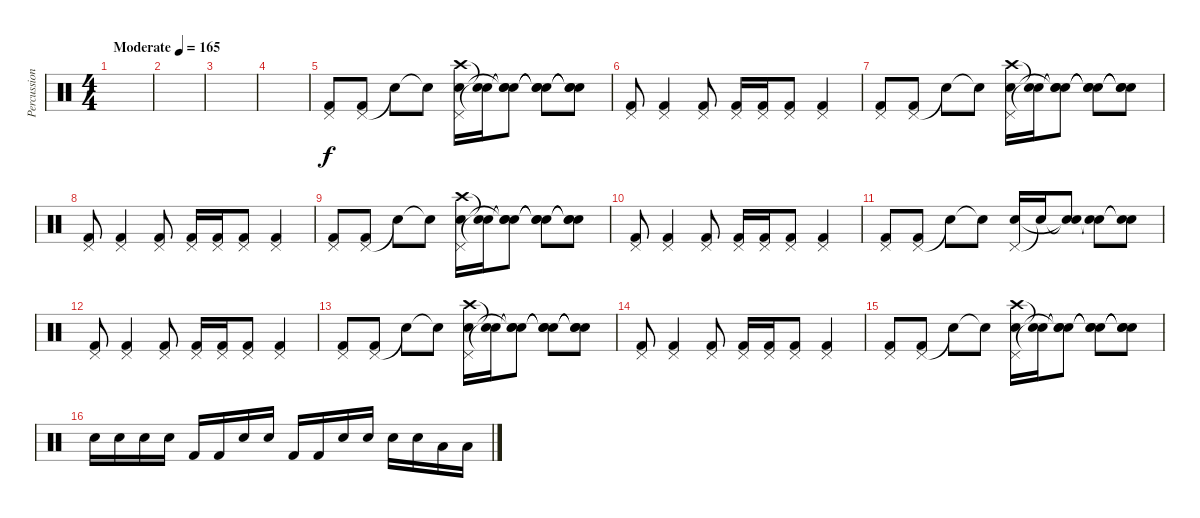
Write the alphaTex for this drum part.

\track ("Percussion" "Percussion") {instrument percussion}
\staff {score}
\articulation defaults
\ts (4 4)
\tempo (165 "Moderate")
\clef neutral
\ks c
|
|
|
|
("Pedal Hi-Hat (hit)" "Kick (hit) 2").8 ("Pedal Hi-Hat (hit)" "Kick (hit) 2").8 "Snare (hit)"{t}.8 "Snare (hit)"{t}.8 ("Pedal Hi-Hat (hit)" "Crash high (hit)" "Snare (hit) 2").16 ("Snare (hit)"{t} "Snare (hit)"{t}).16 ("Snare (hit)"{t} "Snare (hit)"{t} "Snare (hit)"{t}).8 ("Snare (hit)"{t} "Snare (hit)"{t} "Snare (hit)"{t}).8 ("Snare (hit)"{t} "Snare (hit)"{t} "Snare (hit)"{t}).8 |
("Pedal Hi-Hat (hit)" "Kick (hit) 2").8 ("Pedal Hi-Hat (hit)" "Kick (hit) 2").4 ("Pedal Hi-Hat (hit)" "Kick (hit) 2").8 ("Pedal Hi-Hat (hit)" "Kick (hit) 2").16 ("Pedal Hi-Hat (hit)" "Kick (hit) 2").16 ("Pedal Hi-Hat (hit)" "Kick (hit) 2").8 ("Pedal Hi-Hat (hit)" "Kick (hit) 2").4 |
("Pedal Hi-Hat (hit)" "Kick (hit) 2").8 ("Pedal Hi-Hat (hit)" "Kick (hit) 2").8 "Snare (hit)"{t}.8 "Snare (hit)"{t}.8 ("Pedal Hi-Hat (hit)" "Crash high (hit)" "Snare (hit) 2").16 ("Snare (hit)"{t} "Snare (hit)"{t}).16 ("Snare (hit)"{t} "Snare (hit)"{t} "Snare (hit)"{t}).8 ("Snare (hit)"{t} "Snare (hit)"{t} "Snare (hit)"{t}).8 ("Snare (hit)"{t} "Snare (hit)"{t} "Snare (hit)"{t}).8 |
("Pedal Hi-Hat (hit)" "Kick (hit) 2").8 ("Pedal Hi-Hat (hit)" "Kick (hit) 2").4 ("Pedal Hi-Hat (hit)" "Kick (hit) 2").8 ("Pedal Hi-Hat (hit)" "Kick (hit) 2").16 ("Pedal Hi-Hat (hit)" "Kick (hit) 2").16 ("Pedal Hi-Hat (hit)" "Kick (hit) 2").8 ("Pedal Hi-Hat (hit)" "Kick (hit) 2").4 |
("Pedal Hi-Hat (hit)" "Kick (hit) 2").8 ("Pedal Hi-Hat (hit)" "Kick (hit) 2").8 "Snare (hit)"{t}.8 "Snare (hit)"{t}.8 ("Pedal Hi-Hat (hit)" "Crash high (hit)" "Snare (hit) 2").16 ("Snare (hit)"{t} "Snare (hit)"{t}).16 ("Snare (hit)"{t} "Snare (hit)"{t} "Snare (hit)"{t}).8 ("Snare (hit)"{t} "Snare (hit)"{t} "Snare (hit)"{t}).8 ("Snare (hit)"{t} "Snare (hit)"{t} "Snare (hit)"{t}).8 |
("Pedal Hi-Hat (hit)" "Kick (hit) 2").8 ("Pedal Hi-Hat (hit)" "Kick (hit) 2").4 ("Pedal Hi-Hat (hit)" "Kick (hit) 2").8 ("Pedal Hi-Hat (hit)" "Kick (hit) 2").16 ("Pedal Hi-Hat (hit)" "Kick (hit) 2").16 ("Pedal Hi-Hat (hit)" "Kick (hit) 2").8 ("Pedal Hi-Hat (hit)" "Kick (hit) 2").4 |
("Pedal Hi-Hat (hit)" "Kick (hit) 2").8 ("Pedal Hi-Hat (hit)" "Kick (hit) 2").8 "Snare (hit)"{t}.8 "Snare (hit)"{t}.8 ("Pedal Hi-Hat (hit)" "Snare (hit) 2").16 "Snare (hit)"{t}.16 ("Snare (hit)"{t} "Snare (hit)"{t}).8 ("Snare (hit)"{t} "Snare (hit)"{t}).8 ("Snare (hit)"{t} "Snare (hit)"{t}).8 |
("Pedal Hi-Hat (hit)" "Kick (hit) 2").8 ("Pedal Hi-Hat (hit)" "Kick (hit) 2").4 ("Pedal Hi-Hat (hit)" "Kick (hit) 2").8 ("Pedal Hi-Hat (hit)" "Kick (hit) 2").16 ("Pedal Hi-Hat (hit)" "Kick (hit) 2").16 ("Pedal Hi-Hat (hit)" "Kick (hit) 2").8 ("Pedal Hi-Hat (hit)" "Kick (hit) 2").4 |
("Pedal Hi-Hat (hit)" "Kick (hit) 2").8 ("Pedal Hi-Hat (hit)" "Kick (hit) 2").8 "Snare (hit)"{t}.8 "Snare (hit)"{t}.8 ("Pedal Hi-Hat (hit)" "Crash high (hit)" "Snare (hit) 2").16 ("Snare (hit)"{t} "Snare (hit)"{t}).16 ("Snare (hit)"{t} "Snare (hit)"{t} "Snare (hit)"{t}).8 ("Snare (hit)"{t} "Snare (hit)"{t} "Snare (hit)"{t}).8 ("Snare (hit)"{t} "Snare (hit)"{t} "Snare (hit)"{t}).8 |
("Pedal Hi-Hat (hit)" "Kick (hit) 2").8 ("Pedal Hi-Hat (hit)" "Kick (hit) 2").4 ("Pedal Hi-Hat (hit)" "Kick (hit) 2").8 ("Pedal Hi-Hat (hit)" "Kick (hit) 2").16 ("Pedal Hi-Hat (hit)" "Kick (hit) 2").16 ("Pedal Hi-Hat (hit)" "Kick (hit) 2").8 ("Pedal Hi-Hat (hit)" "Kick (hit) 2").4 |
("Pedal Hi-Hat (hit)" "Kick (hit) 2").8 ("Pedal Hi-Hat (hit)" "Kick (hit) 2").8 "Snare (hit)"{t}.8 "Snare (hit)"{t}.8 ("Pedal Hi-Hat (hit)" "Crash high (hit)" "Snare (hit) 2").16 ("Snare (hit)"{t} "Snare (hit)"{t}).16 ("Snare (hit)"{t} "Snare (hit)"{t} "Snare (hit)"{t}).8 ("Snare (hit)"{t} "Snare (hit)"{t} "Snare (hit)"{t}).8 ("Snare (hit)"{t} "Snare (hit)"{t} "Snare (hit)"{t}).8 |
"Snare (hit) 2".16 "Snare (hit) 2".16 "Electric Snare (hit)".16 "Electric Snare (hit)".16 "Kick (hit) 2".16 "Kick (hit) 2".16 "Electric Snare (hit)".16 "Electric Snare (hit)".16 "Kick (hit) 2".16 "Kick (hit) 2".16 "Snare (hit) 2".16 "Snare (hit) 2".16 "Electric Snare (hit)".16 "Electric Snare (hit)".16 "Low Tom (hit)".16 "Low Tom (hit)".16
